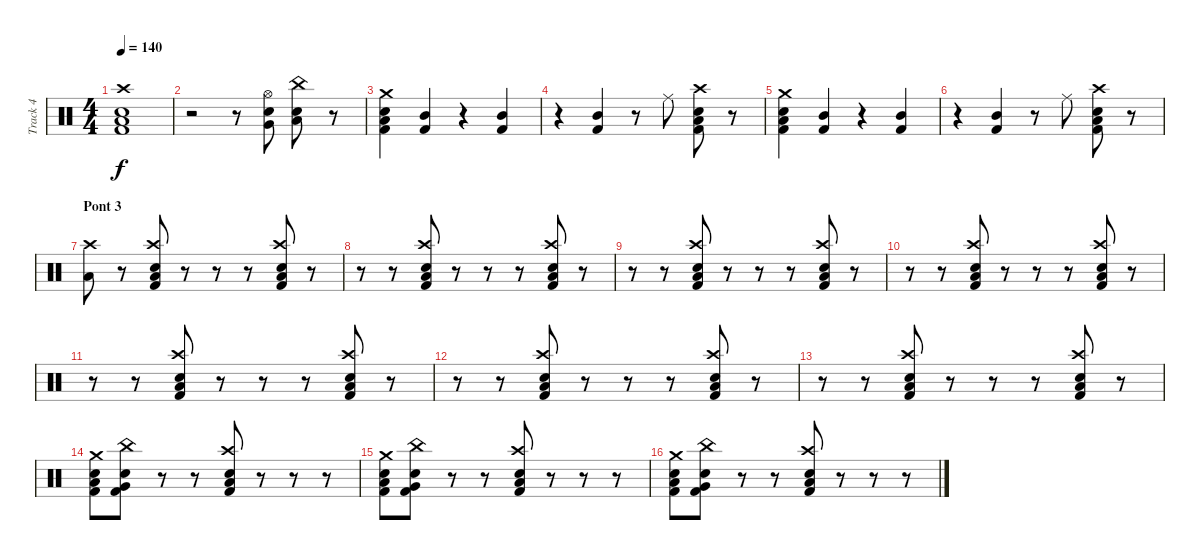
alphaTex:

\track ("Track 4" "Track 4") {instrument percussion}
\staff {score}
\articulation defaults
\ts (4 4)
\tempo 140
\clef neutral
\ks c
("Low Tom (hit)" "Snare (hit) 2" "Crash high (hit)" "Kick (hit) 2").1{dy f} |
r.2 r.8 ("Very Low Tom (hit)" "Electric Snare (hit)" "Hi-Hat (open)").8 ("Low Floor Tom (hit)" "Snare (hit) 2" "China (hit)").8 r.8 |
("Low Tom (hit)" "Kick (hit) 2" "Snare (hit) 2" "Crash medium (hit)").4 ("Kick (hit) 2" "Mid Tom (hit)").4 r.4 ("Kick (hit) 2" "Mid Tom (hit)").4 |
r.4 ("Kick (hit) 2" "Mid Tom (hit)").4 r.8 "Ride (middle)".8 ("Low Floor Tom (hit)" "Snare (hit) 2" "Crash high (hit)" "Kick (hit) 2").8 r.8 |
("Low Tom (hit)" "Kick (hit) 2" "Snare (hit) 2" "Crash medium (hit)").4 ("Kick (hit) 2" "Mid Tom (hit)").4 r.4 ("Kick (hit) 2" "Mid Tom (hit)").4 |
r.4 ("Kick (hit) 2" "Mid Tom (hit)").4 r.8 "Ride (middle)".8 ("Low Floor Tom (hit)" "Snare (hit) 2" "Crash high (hit)" "Kick (hit) 2").8 r.8 |
\section ("" "Pont 3")
("Low Tom (hit)" "Crash high (hit)").8 r.8 ("Low Tom (hit)" "Snare (hit) 2" "Kick (hit) 2" "Crash high (hit)").8 r.8 r.8 r.8 ("Low Tom (hit)" "Snare (hit) 2" "Kick (hit) 2" "Crash high (hit)").8 r.8 |
r.8 r.8 ("Low Tom (hit)" "Snare (hit) 2" "Kick (hit) 2" "Crash high (hit)").8 r.8 r.8 r.8 ("Low Tom (hit)" "Snare (hit) 2" "Kick (hit) 2" "Crash high (hit)").8 r.8 |
r.8 r.8 ("Low Tom (hit)" "Snare (hit) 2" "Kick (hit) 2" "Crash high (hit)").8 r.8 r.8 r.8 ("Low Tom (hit)" "Snare (hit) 2" "Kick (hit) 2" "Crash high (hit)").8 r.8 |
r.8 r.8 ("Low Tom (hit)" "Snare (hit) 2" "Kick (hit) 2" "Crash high (hit)").8 r.8 r.8 r.8 ("Low Tom (hit)" "Snare (hit) 2" "Kick (hit) 2" "Crash high (hit)").8 r.8 |
r.8 r.8 ("Low Tom (hit)" "Snare (hit) 2" "Kick (hit) 2" "Crash high (hit)").8 r.8 r.8 r.8 ("Low Tom (hit)" "Snare (hit) 2" "Kick (hit) 2" "Crash high (hit)").8 r.8 |
r.8 r.8 ("Low Tom (hit)" "Snare (hit) 2" "Kick (hit) 2" "Crash high (hit)").8 r.8 r.8 r.8 ("Low Tom (hit)" "Snare (hit) 2" "Kick (hit) 2" "Crash high (hit)").8 r.8 |
r.8 r.8 ("Low Tom (hit)" "Snare (hit) 2" "Kick (hit) 2" "Crash high (hit)").8 r.8 r.8 r.8 ("Low Tom (hit)" "Snare (hit) 2" "Kick (hit) 2" "Crash high (hit)").8 r.8 |
("Low Tom (hit)" "Snare (hit) 2" "Kick (hit) 2" "Crash medium (hit)").8 ("Very Low Tom (hit)" "Snare (hit) 2" "Kick (hit) 2" "China (hit)").8 r.8 r.8 ("Low Tom (hit)" "Snare (hit) 2" "Kick (hit) 2" "Crash high (hit)").8 r.8 r.8 r.8 |
("Low Tom (hit)" "Snare (hit) 2" "Kick (hit) 2" "Crash medium (hit)").8 ("Very Low Tom (hit)" "Snare (hit) 2" "Kick (hit) 2" "China (hit)").8 r.8 r.8 ("Low Tom (hit)" "Snare (hit) 2" "Kick (hit) 2" "Crash high (hit)").8 r.8 r.8 r.8 |
("Low Tom (hit)" "Snare (hit) 2" "Kick (hit) 2" "Crash medium (hit)").8 ("Very Low Tom (hit)" "Snare (hit) 2" "Kick (hit) 2" "China (hit)").8 r.8 r.8 ("Low Tom (hit)" "Snare (hit) 2" "Kick (hit) 2" "Crash high (hit)").8 r.8 r.8 r.8
